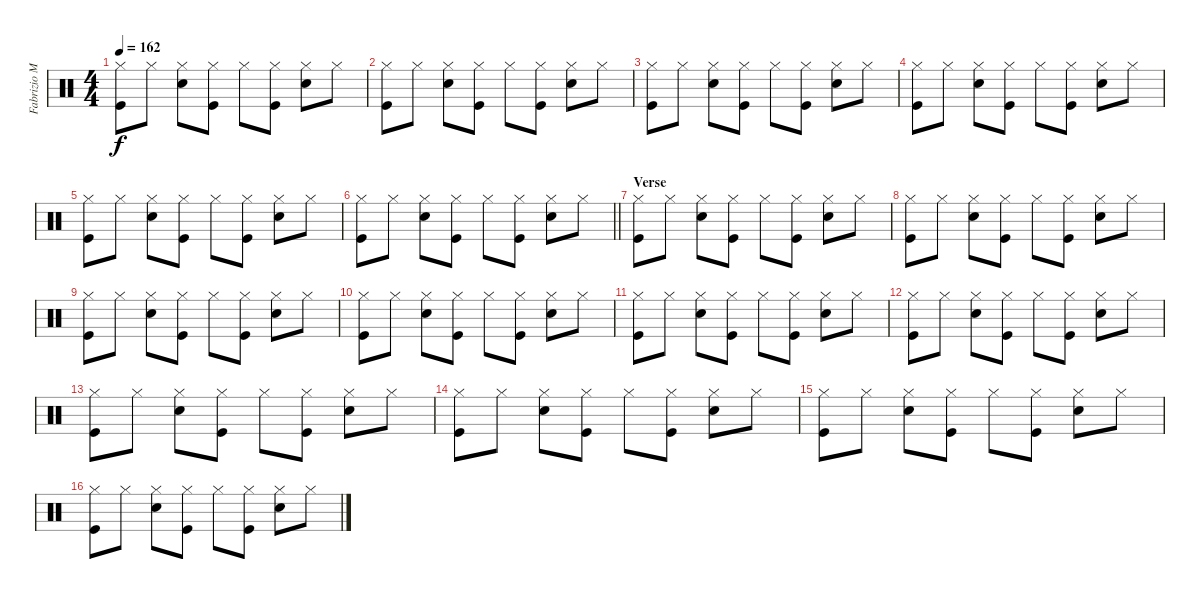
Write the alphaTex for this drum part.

\track ("Fabrizio Moretti" "Fabrizio M") {instrument percussion}
\staff {score}
\articulation defaults
\ts (4 4)
\tempo 162
\clef neutral
\ks c
("Hi-Hat (closed)" "Kick (hit)").8{dy f} "Hi-Hat (closed)".8 ("Hi-Hat (closed)" "Snare (hit) 2").8 ("Hi-Hat (closed)" "Kick (hit)").8 "Hi-Hat (closed)".8 ("Hi-Hat (closed)" "Kick (hit)").8 ("Hi-Hat (closed)" "Snare (hit) 2").8 "Hi-Hat (closed)".8 |
("Hi-Hat (closed)" "Kick (hit)").8 "Hi-Hat (closed)".8 ("Hi-Hat (closed)" "Snare (hit) 2").8 ("Hi-Hat (closed)" "Kick (hit)").8 "Hi-Hat (closed)".8 ("Hi-Hat (closed)" "Kick (hit)").8 ("Hi-Hat (closed)" "Snare (hit) 2").8 "Hi-Hat (closed)".8 |
("Hi-Hat (closed)" "Kick (hit)").8 "Hi-Hat (closed)".8 ("Hi-Hat (closed)" "Snare (hit) 2").8 ("Hi-Hat (closed)" "Kick (hit)").8 "Hi-Hat (closed)".8 ("Hi-Hat (closed)" "Kick (hit)").8 ("Hi-Hat (closed)" "Snare (hit) 2").8 "Hi-Hat (closed)".8 |
("Hi-Hat (closed)" "Kick (hit)").8 "Hi-Hat (closed)".8 ("Hi-Hat (closed)" "Snare (hit) 2").8 ("Hi-Hat (closed)" "Kick (hit)").8 "Hi-Hat (closed)".8 ("Hi-Hat (closed)" "Kick (hit)").8 ("Hi-Hat (closed)" "Snare (hit) 2").8 "Hi-Hat (closed)".8 |
("Hi-Hat (closed)" "Kick (hit)").8 "Hi-Hat (closed)".8 ("Hi-Hat (closed)" "Snare (hit) 2").8 ("Hi-Hat (closed)" "Kick (hit)").8 "Hi-Hat (closed)".8 ("Hi-Hat (closed)" "Kick (hit)").8 ("Hi-Hat (closed)" "Snare (hit) 2").8 "Hi-Hat (closed)".8 |
\barLineRight lightlight
("Hi-Hat (closed)" "Kick (hit)").8 "Hi-Hat (closed)".8 ("Hi-Hat (closed)" "Snare (hit) 2").8 ("Hi-Hat (closed)" "Kick (hit)").8 "Hi-Hat (closed)".8 ("Hi-Hat (closed)" "Kick (hit)").8 ("Hi-Hat (closed)" "Snare (hit) 2").8 "Hi-Hat (closed)".8 |
\section ("" "Verse")
("Hi-Hat (closed)" "Kick (hit)").8 "Hi-Hat (closed)".8 ("Hi-Hat (closed)" "Snare (hit) 2").8 ("Hi-Hat (closed)" "Kick (hit)").8 "Hi-Hat (closed)".8 ("Hi-Hat (closed)" "Kick (hit)").8 ("Hi-Hat (closed)" "Snare (hit) 2").8 "Hi-Hat (closed)".8 |
("Hi-Hat (closed)" "Kick (hit)").8 "Hi-Hat (closed)".8 ("Hi-Hat (closed)" "Snare (hit) 2").8 ("Hi-Hat (closed)" "Kick (hit)").8 "Hi-Hat (closed)".8 ("Hi-Hat (closed)" "Kick (hit)").8 ("Hi-Hat (closed)" "Snare (hit) 2").8 "Hi-Hat (closed)".8 |
("Hi-Hat (closed)" "Kick (hit)").8 "Hi-Hat (closed)".8 ("Hi-Hat (closed)" "Snare (hit) 2").8 ("Hi-Hat (closed)" "Kick (hit)").8 "Hi-Hat (closed)".8 ("Hi-Hat (closed)" "Kick (hit)").8 ("Hi-Hat (closed)" "Snare (hit) 2").8 "Hi-Hat (closed)".8 |
("Hi-Hat (closed)" "Kick (hit)").8 "Hi-Hat (closed)".8 ("Hi-Hat (closed)" "Snare (hit) 2").8 ("Hi-Hat (closed)" "Kick (hit)").8 "Hi-Hat (closed)".8 ("Hi-Hat (closed)" "Kick (hit)").8 ("Hi-Hat (closed)" "Snare (hit) 2").8 "Hi-Hat (closed)".8 |
("Hi-Hat (closed)" "Kick (hit)").8 "Hi-Hat (closed)".8 ("Hi-Hat (closed)" "Snare (hit) 2").8 ("Hi-Hat (closed)" "Kick (hit)").8 "Hi-Hat (closed)".8 ("Hi-Hat (closed)" "Kick (hit)").8 ("Hi-Hat (closed)" "Snare (hit) 2").8 "Hi-Hat (closed)".8 |
("Hi-Hat (closed)" "Kick (hit)").8 "Hi-Hat (closed)".8 ("Hi-Hat (closed)" "Snare (hit) 2").8 ("Hi-Hat (closed)" "Kick (hit)").8 "Hi-Hat (closed)".8 ("Hi-Hat (closed)" "Kick (hit)").8 ("Hi-Hat (closed)" "Snare (hit) 2").8 "Hi-Hat (closed)".8 |
("Hi-Hat (closed)" "Kick (hit)").8 "Hi-Hat (closed)".8 ("Hi-Hat (closed)" "Snare (hit) 2").8 ("Hi-Hat (closed)" "Kick (hit)").8 "Hi-Hat (closed)".8 ("Hi-Hat (closed)" "Kick (hit)").8 ("Hi-Hat (closed)" "Snare (hit) 2").8 "Hi-Hat (closed)".8 |
("Hi-Hat (closed)" "Kick (hit)").8 "Hi-Hat (closed)".8 ("Hi-Hat (closed)" "Snare (hit) 2").8 ("Hi-Hat (closed)" "Kick (hit)").8 "Hi-Hat (closed)".8 ("Hi-Hat (closed)" "Kick (hit)").8 ("Hi-Hat (closed)" "Snare (hit) 2").8 "Hi-Hat (closed)".8 |
("Hi-Hat (closed)" "Kick (hit)").8 "Hi-Hat (closed)".8 ("Hi-Hat (closed)" "Snare (hit) 2").8 ("Hi-Hat (closed)" "Kick (hit)").8 "Hi-Hat (closed)".8 ("Hi-Hat (closed)" "Kick (hit)").8 ("Hi-Hat (closed)" "Snare (hit) 2").8 "Hi-Hat (closed)".8 |
("Hi-Hat (closed)" "Kick (hit)").8 "Hi-Hat (closed)".8 ("Hi-Hat (closed)" "Snare (hit) 2").8 ("Hi-Hat (closed)" "Kick (hit)").8 "Hi-Hat (closed)".8 ("Hi-Hat (closed)" "Kick (hit)").8 ("Hi-Hat (closed)" "Snare (hit) 2").8 "Hi-Hat (closed)".8
